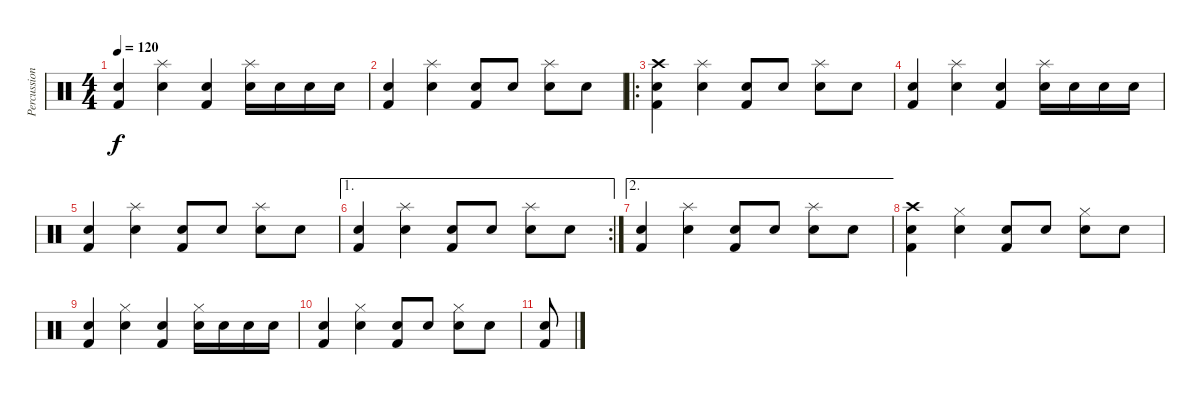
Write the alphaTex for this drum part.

\track ("Percussion" "Percussion") {instrument percussion}
\staff {score}
\articulation defaults
\ts (4 4)
\tempo 120
\clef neutral
\ks c
("Snare (hit) 2" "Kick (hit) 2").4{dy f} ("Splash (hit)" "Snare (hit) 2").4 ("Snare (hit) 2" "Kick (hit) 2").4 ("Splash (hit)" "Snare (hit) 2").16 "Snare (hit) 2".16 "Snare (hit) 2".16 "Snare (hit) 2".16 |
("Snare (hit) 2" "Kick (hit) 2").4 ("Splash (hit)" "Snare (hit) 2").4 ("Snare (hit) 2" "Kick (hit) 2").8 "Snare (hit) 2".8 ("Splash (hit)" "Snare (hit) 2").8 "Snare (hit) 2".8 |
\ro
("Crash high (hit)" "Snare (hit) 2" "Kick (hit) 2").4 ("Splash (hit)" "Snare (hit) 2").4 ("Snare (hit) 2" "Kick (hit) 2").8 "Snare (hit) 2".8 ("Splash (hit)" "Snare (hit) 2").8 "Snare (hit) 2".8 |
("Snare (hit) 2" "Kick (hit) 2").4 ("Splash (hit)" "Snare (hit) 2").4 ("Snare (hit) 2" "Kick (hit) 2").4 ("Splash (hit)" "Snare (hit) 2").16 "Snare (hit) 2".16 "Snare (hit) 2".16 "Snare (hit) 2".16 |
("Snare (hit) 2" "Kick (hit) 2").4 ("Splash (hit)" "Snare (hit) 2").4 ("Snare (hit) 2" "Kick (hit) 2").8 "Snare (hit) 2".8 ("Splash (hit)" "Snare (hit) 2").8 "Snare (hit) 2".8 |
\ae 1
\rc 2
("Snare (hit) 2" "Kick (hit) 2").4 ("Splash (hit)" "Snare (hit) 2").4 ("Snare (hit) 2" "Kick (hit) 2").8 "Snare (hit) 2".8 ("Splash (hit)" "Snare (hit) 2").8 "Snare (hit) 2".8 |
\ae 2
("Snare (hit) 2" "Kick (hit) 2").4 ("Splash (hit)" "Snare (hit) 2").4 ("Snare (hit) 2" "Kick (hit) 2").8 "Snare (hit) 2".8 ("Splash (hit)" "Snare (hit) 2").8 "Snare (hit) 2".8 |
("Crash high (hit)" "Snare (hit) 2" "Kick (hit) 2").4 ("Hi-Hat (closed)" "Snare (hit) 2").4 ("Snare (hit) 2" "Kick (hit) 2").8 "Snare (hit) 2".8 ("Hi-Hat (closed)" "Snare (hit) 2").8 "Snare (hit) 2".8 |
("Snare (hit) 2" "Kick (hit) 2").4 ("Hi-Hat (closed)" "Snare (hit) 2").4 ("Snare (hit) 2" "Kick (hit) 2").4 ("Hi-Hat (closed)" "Snare (hit) 2").16 "Snare (hit) 2".16 "Snare (hit) 2".16 "Snare (hit) 2".16 |
("Snare (hit) 2" "Kick (hit) 2").4 ("Hi-Hat (closed)" "Snare (hit) 2").4 ("Snare (hit) 2" "Kick (hit) 2").8 "Snare (hit) 2".8 ("Hi-Hat (closed)" "Snare (hit) 2").8 "Snare (hit) 2".8 |
("Snare (hit) 2" "Kick (hit) 2").8
